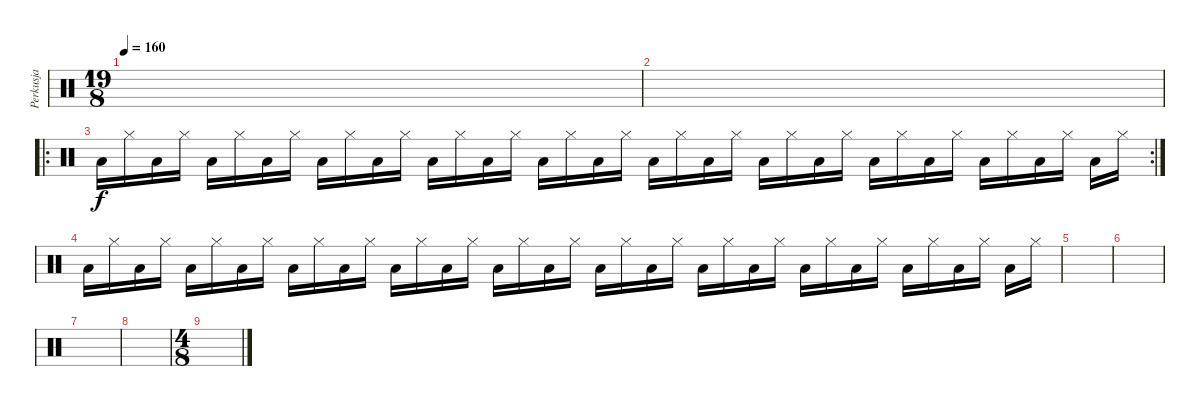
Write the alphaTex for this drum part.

\track ("Perkusja" "Perkusja") {instrument percussion}
\staff {score}
\articulation defaults
\ts (19 8)
\tempo 160
\clef neutral
\ks c
|
|
\ro
\rc 2 "Low Floor Tom (hit)".16 "Hi-Hat (closed)".16 "Low Floor Tom (hit)".16 "Hi-Hat (closed)".16 "Low Floor Tom (hit)".16 "Hi-Hat (closed)".16 "Low Floor Tom (hit)".16 "Hi-Hat (closed)".16 "Low Floor Tom (hit)".16 "Hi-Hat (closed)".16 "Low Floor Tom (hit)".16 "Hi-Hat (closed)".16 "Low Floor Tom (hit)".16 "Hi-Hat (closed)".16 "Low Floor Tom (hit)".16 "Hi-Hat (closed)".16 "Low Floor Tom (hit)".16 "Hi-Hat (closed)".16 "Low Floor Tom (hit)".16 "Hi-Hat (closed)".16 "Low Floor Tom (hit)".16 "Hi-Hat (closed)".16 "Low Floor Tom (hit)".16 "Hi-Hat (closed)".16 "Low Floor Tom (hit)".16 "Hi-Hat (closed)".16 "Low Floor Tom (hit)".16 "Hi-Hat (closed)".16 "Low Floor Tom (hit)".16 "Hi-Hat (closed)".16 "Low Floor Tom (hit)".16 "Hi-Hat (closed)".16 "Low Floor Tom (hit)".16 "Hi-Hat (closed)".16 "Low Floor Tom (hit)".16 "Hi-Hat (closed)".16 "Low Floor Tom (hit)".16 "Hi-Hat (closed)".16
|
"Low Floor Tom (hit)".16 "Hi-Hat (closed)".16 "Low Floor Tom (hit)".16 "Hi-Hat (closed)".16 "Low Floor Tom (hit)".16 "Hi-Hat (closed)".16 "Low Floor Tom (hit)".16 "Hi-Hat (closed)".16 "Low Floor Tom (hit)".16 "Hi-Hat (closed)".16 "Low Floor Tom (hit)".16 "Hi-Hat (closed)".16 "Low Floor Tom (hit)".16 "Hi-Hat (closed)".16 "Low Floor Tom (hit)".16 "Hi-Hat (closed)".16 "Low Floor Tom (hit)".16 "Hi-Hat (closed)".16 "Low Floor Tom (hit)".16 "Hi-Hat (closed)".16 "Low Floor Tom (hit)".16 "Hi-Hat (closed)".16 "Low Floor Tom (hit)".16 "Hi-Hat (closed)".16 "Low Floor Tom (hit)".16 "Hi-Hat (closed)".16 "Low Floor Tom (hit)".16 "Hi-Hat (closed)".16 "Low Floor Tom (hit)".16 "Hi-Hat (closed)".16 "Low Floor Tom (hit)".16 "Hi-Hat (closed)".16 "Low Floor Tom (hit)".16 "Hi-Hat (closed)".16 "Low Floor Tom (hit)".16 "Hi-Hat (closed)".16 "Low Floor Tom (hit)".16 "Hi-Hat (closed)".16 |
|
|
|
|
\ts (4 8)
